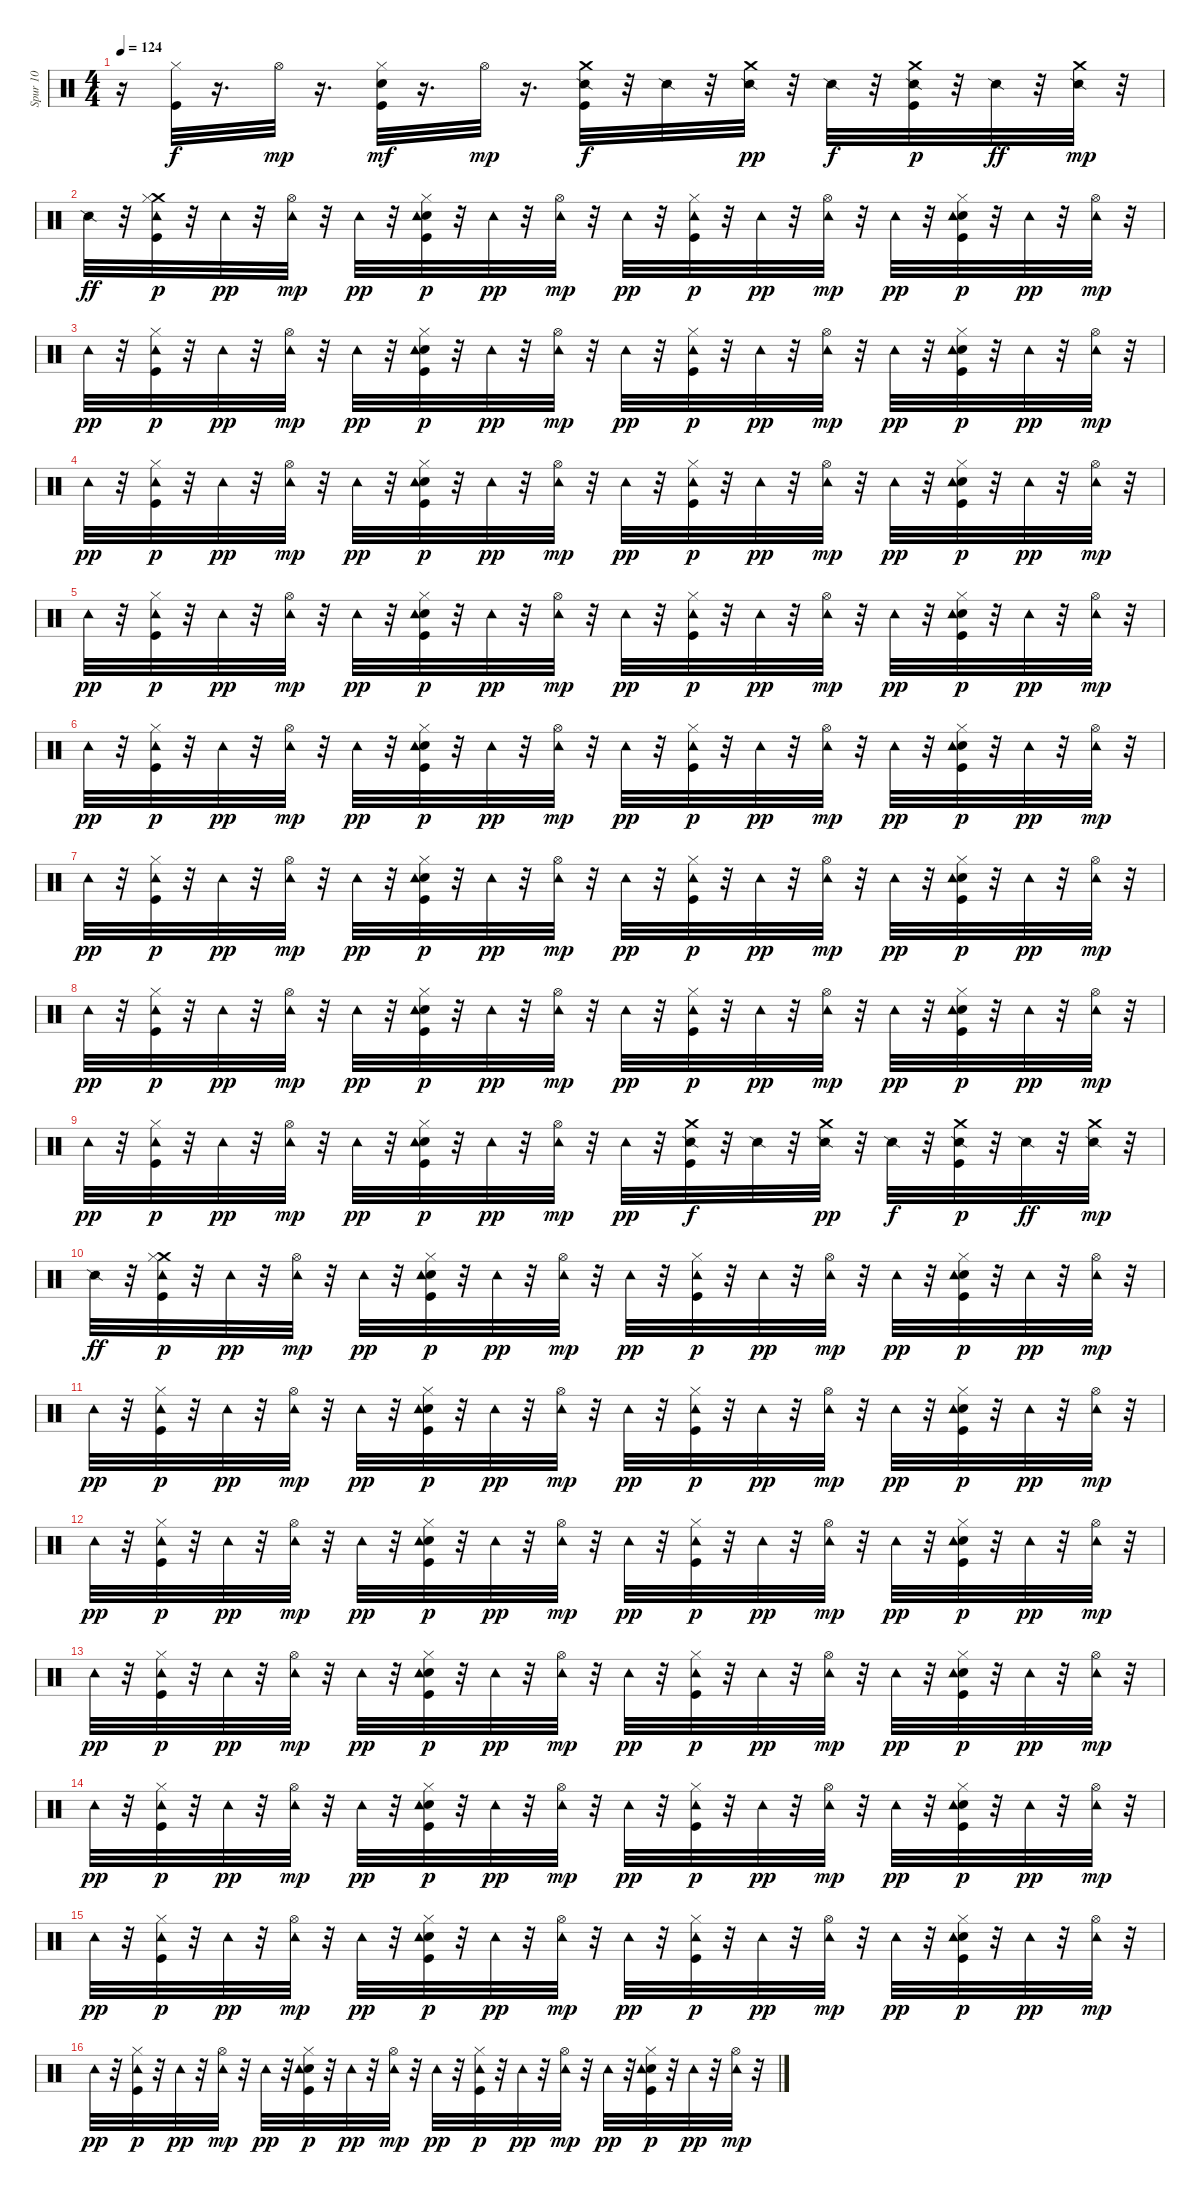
\track ("Spur 10" "Spur 10") {instrument percussion}
\staff {score}
\articulation defaults
\ts (4 4)
\tempo 124
\clef neutral
\ks c
r.16{dy mf} ("Kick (hit)" "Hi-Hat (closed)").32{dy f} r.16{d} "Hi-Hat (open)".32{dy mp} r.16{d} ("Kick (hit)" "Snare (hit) 2" "Hi-Hat (closed)").32{dy mf} r.16{d} "Hi-Hat (open)".32{dy mp} r.16{d} ("Snare (side stick) 2" "Kick (hit)" "Crash medium (hit)").32{dy f balance 10} r.32 "Snare (side stick) 2".32 r.32 ("Snare (side stick) 2" "Crash medium (hit)").32{dy pp balance 14} r.32 "Snare (side stick) 2".32{dy f} r.32 ("Snare (side stick) 2" "Kick (hit)" "Crash medium (hit)").32{dy p balance 7} r.32 "Snare (side stick) 2".32{dy ff} r.32 ("Snare (side stick) 2" "Crash medium (hit)").32{dy mp balance 0} r.32 |
"Snare (side stick) 2".32{dy ff} r.32 ("Crash medium (hit)" "Kick (hit)" "Hi-Hat (closed)" "Tambourine (hit)").32{dy p balance 8} r.32 "Tambourine (hit)".32{dy pp} r.32 ("Hi-Hat (open)" "Tambourine (hit)").32{dy mp} r.32 "Tambourine (hit)".32{dy pp} r.32 ("Kick (hit)" "Snare (hit) 2" "Hi-Hat (closed)" "Tambourine (hit)").32{dy p} r.32 "Tambourine (hit)".32{dy pp} r.32 ("Hi-Hat (open)" "Tambourine (hit)").32{dy mp} r.32 "Tambourine (hit)".32{dy pp} r.32 ("Kick (hit)" "Hi-Hat (closed)" "Tambourine (hit)").32{dy p} r.32 "Tambourine (hit)".32{dy pp} r.32 ("Hi-Hat (open)" "Tambourine (hit)").32{dy mp} r.32 "Tambourine (hit)".32{dy pp} r.32 ("Kick (hit)" "Snare (hit) 2" "Hi-Hat (closed)" "Tambourine (hit)").32{dy p} r.32 "Tambourine (hit)".32{dy pp} r.32 ("Hi-Hat (open)" "Tambourine (hit)").32{dy mp} r.32 |
"Tambourine (hit)".32{dy pp} r.32 ("Kick (hit)" "Hi-Hat (closed)" "Tambourine (hit)").32{dy p} r.32 "Tambourine (hit)".32{dy pp} r.32 ("Hi-Hat (open)" "Tambourine (hit)").32{dy mp} r.32 "Tambourine (hit)".32{dy pp} r.32 ("Kick (hit)" "Snare (hit) 2" "Hi-Hat (closed)" "Tambourine (hit)").32{dy p} r.32 "Tambourine (hit)".32{dy pp} r.32 ("Hi-Hat (open)" "Tambourine (hit)").32{dy mp} r.32 "Tambourine (hit)".32{dy pp} r.32 ("Kick (hit)" "Hi-Hat (closed)" "Tambourine (hit)").32{dy p} r.32 "Tambourine (hit)".32{dy pp} r.32 ("Hi-Hat (open)" "Tambourine (hit)").32{dy mp} r.32 "Tambourine (hit)".32{dy pp} r.32 ("Kick (hit)" "Snare (hit) 2" "Hi-Hat (closed)" "Tambourine (hit)").32{dy p} r.32 "Tambourine (hit)".32{dy pp} r.32 ("Hi-Hat (open)" "Tambourine (hit)").32{dy mp} r.32 |
"Tambourine (hit)".32{dy pp} r.32 ("Kick (hit)" "Hi-Hat (closed)" "Tambourine (hit)").32{dy p} r.32 "Tambourine (hit)".32{dy pp} r.32 ("Hi-Hat (open)" "Tambourine (hit)").32{dy mp} r.32 "Tambourine (hit)".32{dy pp} r.32 ("Kick (hit)" "Snare (hit) 2" "Hi-Hat (closed)" "Tambourine (hit)").32{dy p} r.32 "Tambourine (hit)".32{dy pp} r.32 ("Hi-Hat (open)" "Tambourine (hit)").32{dy mp} r.32 "Tambourine (hit)".32{dy pp} r.32 ("Kick (hit)" "Hi-Hat (closed)" "Tambourine (hit)").32{dy p} r.32 "Tambourine (hit)".32{dy pp} r.32 ("Hi-Hat (open)" "Tambourine (hit)").32{dy mp} r.32 "Tambourine (hit)".32{dy pp} r.32 ("Kick (hit)" "Snare (hit) 2" "Hi-Hat (closed)" "Tambourine (hit)").32{dy p} r.32 "Tambourine (hit)".32{dy pp} r.32 ("Hi-Hat (open)" "Tambourine (hit)").32{dy mp} r.32 |
"Tambourine (hit)".32{dy pp} r.32 ("Kick (hit)" "Hi-Hat (closed)" "Tambourine (hit)").32{dy p} r.32 "Tambourine (hit)".32{dy pp} r.32 ("Hi-Hat (open)" "Tambourine (hit)").32{dy mp} r.32 "Tambourine (hit)".32{dy pp} r.32 ("Kick (hit)" "Snare (hit) 2" "Hi-Hat (closed)" "Tambourine (hit)").32{dy p} r.32 "Tambourine (hit)".32{dy pp} r.32 ("Hi-Hat (open)" "Tambourine (hit)").32{dy mp} r.32 "Tambourine (hit)".32{dy pp} r.32 ("Kick (hit)" "Hi-Hat (closed)" "Tambourine (hit)").32{dy p} r.32 "Tambourine (hit)".32{dy pp} r.32 ("Hi-Hat (open)" "Tambourine (hit)").32{dy mp} r.32 "Tambourine (hit)".32{dy pp} r.32 ("Kick (hit)" "Snare (hit) 2" "Hi-Hat (closed)" "Tambourine (hit)").32{dy p} r.32 "Tambourine (hit)".32{dy pp} r.32 ("Hi-Hat (open)" "Tambourine (hit)").32{dy mp} r.32 |
"Tambourine (hit)".32{dy pp} r.32 ("Kick (hit)" "Hi-Hat (closed)" "Tambourine (hit)").32{dy p} r.32 "Tambourine (hit)".32{dy pp} r.32 ("Hi-Hat (open)" "Tambourine (hit)").32{dy mp} r.32 "Tambourine (hit)".32{dy pp} r.32 ("Kick (hit)" "Snare (hit) 2" "Hi-Hat (closed)" "Tambourine (hit)").32{dy p} r.32 "Tambourine (hit)".32{dy pp} r.32 ("Hi-Hat (open)" "Tambourine (hit)").32{dy mp} r.32 "Tambourine (hit)".32{dy pp} r.32 ("Kick (hit)" "Hi-Hat (closed)" "Tambourine (hit)").32{dy p} r.32 "Tambourine (hit)".32{dy pp} r.32 ("Hi-Hat (open)" "Tambourine (hit)").32{dy mp} r.32 "Tambourine (hit)".32{dy pp} r.32 ("Kick (hit)" "Snare (hit) 2" "Hi-Hat (closed)" "Tambourine (hit)").32{dy p} r.32 "Tambourine (hit)".32{dy pp} r.32 ("Hi-Hat (open)" "Tambourine (hit)").32{dy mp} r.32 |
"Tambourine (hit)".32{dy pp} r.32 ("Kick (hit)" "Hi-Hat (closed)" "Tambourine (hit)").32{dy p} r.32 "Tambourine (hit)".32{dy pp} r.32 ("Hi-Hat (open)" "Tambourine (hit)").32{dy mp} r.32 "Tambourine (hit)".32{dy pp} r.32 ("Kick (hit)" "Snare (hit) 2" "Hi-Hat (closed)" "Tambourine (hit)").32{dy p} r.32 "Tambourine (hit)".32{dy pp} r.32 ("Hi-Hat (open)" "Tambourine (hit)").32{dy mp} r.32 "Tambourine (hit)".32{dy pp} r.32 ("Kick (hit)" "Hi-Hat (closed)" "Tambourine (hit)").32{dy p} r.32 "Tambourine (hit)".32{dy pp} r.32 ("Hi-Hat (open)" "Tambourine (hit)").32{dy mp} r.32 "Tambourine (hit)".32{dy pp} r.32 ("Kick (hit)" "Snare (hit) 2" "Hi-Hat (closed)" "Tambourine (hit)").32{dy p} r.32 "Tambourine (hit)".32{dy pp} r.32 ("Hi-Hat (open)" "Tambourine (hit)").32{dy mp} r.32 |
"Tambourine (hit)".32{dy pp} r.32 ("Kick (hit)" "Hi-Hat (closed)" "Tambourine (hit)").32{dy p} r.32 "Tambourine (hit)".32{dy pp} r.32 ("Hi-Hat (open)" "Tambourine (hit)").32{dy mp} r.32 "Tambourine (hit)".32{dy pp} r.32 ("Kick (hit)" "Snare (hit) 2" "Hi-Hat (closed)" "Tambourine (hit)").32{dy p} r.32 "Tambourine (hit)".32{dy pp} r.32 ("Hi-Hat (open)" "Tambourine (hit)").32{dy mp} r.32 "Tambourine (hit)".32{dy pp} r.32 ("Kick (hit)" "Hi-Hat (closed)" "Tambourine (hit)").32{dy p} r.32 "Tambourine (hit)".32{dy pp} r.32 ("Hi-Hat (open)" "Tambourine (hit)").32{dy mp} r.32 "Tambourine (hit)".32{dy pp} r.32 ("Kick (hit)" "Snare (hit) 2" "Hi-Hat (closed)" "Tambourine (hit)").32{dy p} r.32 "Tambourine (hit)".32{dy pp} r.32 ("Hi-Hat (open)" "Tambourine (hit)").32{dy mp} r.32 |
"Tambourine (hit)".32{dy pp} r.32 ("Kick (hit)" "Hi-Hat (closed)" "Tambourine (hit)").32{dy p} r.32 "Tambourine (hit)".32{dy pp} r.32 ("Hi-Hat (open)" "Tambourine (hit)").32{dy mp} r.32 "Tambourine (hit)".32{dy pp} r.32 ("Kick (hit)" "Snare (hit) 2" "Hi-Hat (closed)" "Tambourine (hit)").32{dy p} r.32 "Tambourine (hit)".32{dy pp} r.32 ("Hi-Hat (open)" "Tambourine (hit)").32{dy mp} r.32 "Tambourine (hit)".32{dy pp} r.32 ("Snare (side stick) 2" "Kick (hit)" "Crash medium (hit)").32{dy f balance 10} r.32 "Snare (side stick) 2".32 r.32 ("Snare (side stick) 2" "Crash medium (hit)").32{dy pp balance 14} r.32 "Snare (side stick) 2".32{dy f} r.32 ("Snare (side stick) 2" "Kick (hit)" "Crash medium (hit)").32{dy p balance 7} r.32 "Snare (side stick) 2".32{dy ff} r.32 ("Snare (side stick) 2" "Crash medium (hit)").32{dy mp balance 0} r.32 |
"Snare (side stick) 2".32{dy ff} r.32 ("Crash medium (hit)" "Kick (hit)" "Hi-Hat (closed)" "Tambourine (hit)").32{dy p balance 8} r.32 "Tambourine (hit)".32{dy pp} r.32 ("Hi-Hat (open)" "Tambourine (hit)").32{dy mp} r.32 "Tambourine (hit)".32{dy pp} r.32 ("Kick (hit)" "Snare (hit) 2" "Hi-Hat (closed)" "Tambourine (hit)").32{dy p} r.32 "Tambourine (hit)".32{dy pp} r.32 ("Hi-Hat (open)" "Tambourine (hit)").32{dy mp} r.32 "Tambourine (hit)".32{dy pp} r.32 ("Kick (hit)" "Hi-Hat (closed)" "Tambourine (hit)").32{dy p} r.32 "Tambourine (hit)".32{dy pp} r.32 ("Hi-Hat (open)" "Tambourine (hit)").32{dy mp} r.32 "Tambourine (hit)".32{dy pp} r.32 ("Kick (hit)" "Snare (hit) 2" "Hi-Hat (closed)" "Tambourine (hit)").32{dy p} r.32 "Tambourine (hit)".32{dy pp} r.32 ("Hi-Hat (open)" "Tambourine (hit)").32{dy mp} r.32 |
"Tambourine (hit)".32{dy pp} r.32 ("Kick (hit)" "Hi-Hat (closed)" "Tambourine (hit)").32{dy p} r.32 "Tambourine (hit)".32{dy pp} r.32 ("Hi-Hat (open)" "Tambourine (hit)").32{dy mp} r.32 "Tambourine (hit)".32{dy pp} r.32 ("Kick (hit)" "Snare (hit) 2" "Hi-Hat (closed)" "Tambourine (hit)").32{dy p} r.32 "Tambourine (hit)".32{dy pp} r.32 ("Hi-Hat (open)" "Tambourine (hit)").32{dy mp} r.32 "Tambourine (hit)".32{dy pp} r.32 ("Kick (hit)" "Hi-Hat (closed)" "Tambourine (hit)").32{dy p} r.32 "Tambourine (hit)".32{dy pp} r.32 ("Hi-Hat (open)" "Tambourine (hit)").32{dy mp} r.32 "Tambourine (hit)".32{dy pp} r.32 ("Kick (hit)" "Snare (hit) 2" "Hi-Hat (closed)" "Tambourine (hit)").32{dy p} r.32 "Tambourine (hit)".32{dy pp} r.32 ("Hi-Hat (open)" "Tambourine (hit)").32{dy mp} r.32 |
"Tambourine (hit)".32{dy pp} r.32 ("Kick (hit)" "Hi-Hat (closed)" "Tambourine (hit)").32{dy p} r.32 "Tambourine (hit)".32{dy pp} r.32 ("Hi-Hat (open)" "Tambourine (hit)").32{dy mp} r.32 "Tambourine (hit)".32{dy pp} r.32 ("Kick (hit)" "Snare (hit) 2" "Hi-Hat (closed)" "Tambourine (hit)").32{dy p} r.32 "Tambourine (hit)".32{dy pp} r.32 ("Hi-Hat (open)" "Tambourine (hit)").32{dy mp} r.32 "Tambourine (hit)".32{dy pp} r.32 ("Kick (hit)" "Hi-Hat (closed)" "Tambourine (hit)").32{dy p} r.32 "Tambourine (hit)".32{dy pp} r.32 ("Hi-Hat (open)" "Tambourine (hit)").32{dy mp} r.32 "Tambourine (hit)".32{dy pp} r.32 ("Kick (hit)" "Snare (hit) 2" "Hi-Hat (closed)" "Tambourine (hit)").32{dy p} r.32 "Tambourine (hit)".32{dy pp} r.32 ("Hi-Hat (open)" "Tambourine (hit)").32{dy mp} r.32 |
"Tambourine (hit)".32{dy pp} r.32 ("Kick (hit)" "Hi-Hat (closed)" "Tambourine (hit)").32{dy p} r.32 "Tambourine (hit)".32{dy pp} r.32 ("Hi-Hat (open)" "Tambourine (hit)").32{dy mp} r.32 "Tambourine (hit)".32{dy pp} r.32 ("Kick (hit)" "Snare (hit) 2" "Hi-Hat (closed)" "Tambourine (hit)").32{dy p} r.32 "Tambourine (hit)".32{dy pp} r.32 ("Hi-Hat (open)" "Tambourine (hit)").32{dy mp} r.32 "Tambourine (hit)".32{dy pp} r.32 ("Kick (hit)" "Hi-Hat (closed)" "Tambourine (hit)").32{dy p} r.32 "Tambourine (hit)".32{dy pp} r.32 ("Hi-Hat (open)" "Tambourine (hit)").32{dy mp} r.32 "Tambourine (hit)".32{dy pp} r.32 ("Kick (hit)" "Snare (hit) 2" "Hi-Hat (closed)" "Tambourine (hit)").32{dy p} r.32 "Tambourine (hit)".32{dy pp} r.32 ("Hi-Hat (open)" "Tambourine (hit)").32{dy mp} r.32 |
"Tambourine (hit)".32{dy pp} r.32 ("Kick (hit)" "Hi-Hat (closed)" "Tambourine (hit)").32{dy p} r.32 "Tambourine (hit)".32{dy pp} r.32 ("Hi-Hat (open)" "Tambourine (hit)").32{dy mp} r.32 "Tambourine (hit)".32{dy pp} r.32 ("Kick (hit)" "Snare (hit) 2" "Hi-Hat (closed)" "Tambourine (hit)").32{dy p} r.32 "Tambourine (hit)".32{dy pp} r.32 ("Hi-Hat (open)" "Tambourine (hit)").32{dy mp} r.32 "Tambourine (hit)".32{dy pp} r.32 ("Kick (hit)" "Hi-Hat (closed)" "Tambourine (hit)").32{dy p} r.32 "Tambourine (hit)".32{dy pp} r.32 ("Hi-Hat (open)" "Tambourine (hit)").32{dy mp} r.32 "Tambourine (hit)".32{dy pp} r.32 ("Kick (hit)" "Snare (hit) 2" "Hi-Hat (closed)" "Tambourine (hit)").32{dy p} r.32 "Tambourine (hit)".32{dy pp} r.32 ("Hi-Hat (open)" "Tambourine (hit)").32{dy mp} r.32 |
"Tambourine (hit)".32{dy pp} r.32 ("Kick (hit)" "Hi-Hat (closed)" "Tambourine (hit)").32{dy p} r.32 "Tambourine (hit)".32{dy pp} r.32 ("Hi-Hat (open)" "Tambourine (hit)").32{dy mp} r.32 "Tambourine (hit)".32{dy pp} r.32 ("Kick (hit)" "Snare (hit) 2" "Hi-Hat (closed)" "Tambourine (hit)").32{dy p} r.32 "Tambourine (hit)".32{dy pp} r.32 ("Hi-Hat (open)" "Tambourine (hit)").32{dy mp} r.32 "Tambourine (hit)".32{dy pp} r.32 ("Kick (hit)" "Hi-Hat (closed)" "Tambourine (hit)").32{dy p} r.32 "Tambourine (hit)".32{dy pp} r.32 ("Hi-Hat (open)" "Tambourine (hit)").32{dy mp} r.32 "Tambourine (hit)".32{dy pp} r.32 ("Kick (hit)" "Snare (hit) 2" "Hi-Hat (closed)" "Tambourine (hit)").32{dy p} r.32 "Tambourine (hit)".32{dy pp} r.32 ("Hi-Hat (open)" "Tambourine (hit)").32{dy mp} r.32 |
"Tambourine (hit)".32{dy pp} r.32 ("Kick (hit)" "Hi-Hat (closed)" "Tambourine (hit)").32{dy p} r.32 "Tambourine (hit)".32{dy pp} r.32 ("Hi-Hat (open)" "Tambourine (hit)").32{dy mp} r.32 "Tambourine (hit)".32{dy pp} r.32 ("Kick (hit)" "Snare (hit) 2" "Hi-Hat (closed)" "Tambourine (hit)").32{dy p} r.32 "Tambourine (hit)".32{dy pp} r.32 ("Hi-Hat (open)" "Tambourine (hit)").32{dy mp} r.32 "Tambourine (hit)".32{dy pp} r.32 ("Kick (hit)" "Hi-Hat (closed)" "Tambourine (hit)").32{dy p} r.32 "Tambourine (hit)".32{dy pp} r.32 ("Hi-Hat (open)" "Tambourine (hit)").32{dy mp} r.32 "Tambourine (hit)".32{dy pp} r.32 ("Kick (hit)" "Snare (hit) 2" "Hi-Hat (closed)" "Tambourine (hit)").32{dy p} r.32 "Tambourine (hit)".32{dy pp} r.32 ("Hi-Hat (open)" "Tambourine (hit)").32{dy mp} r.32
